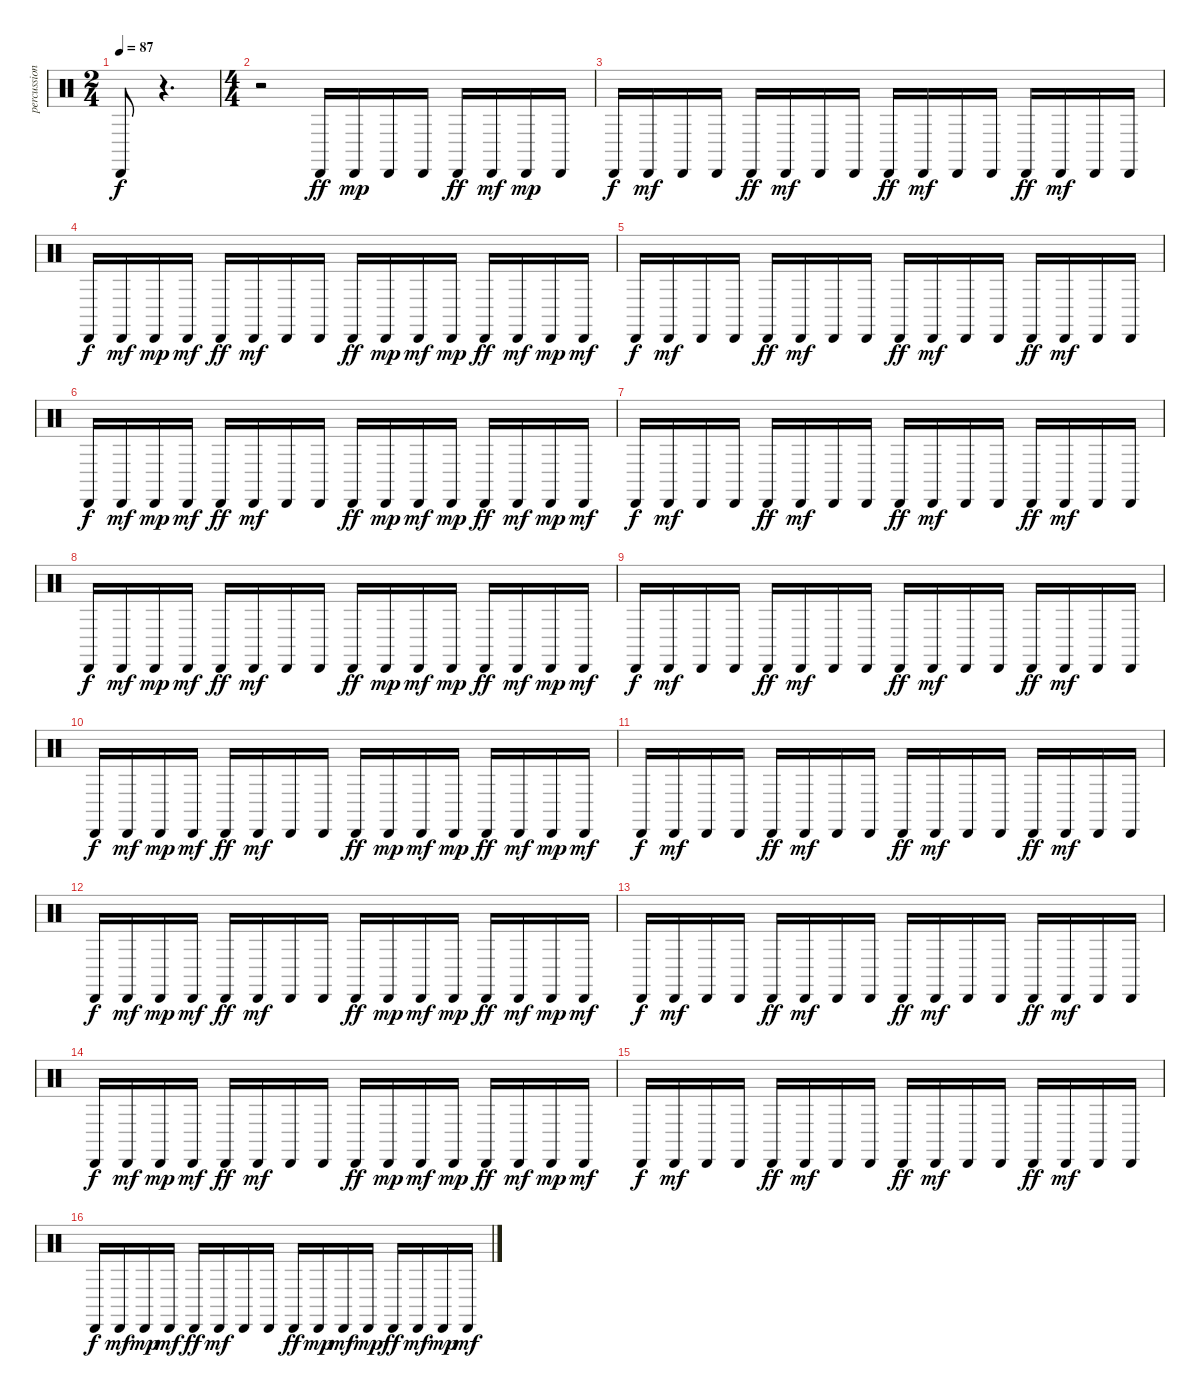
\track ("percussion" "percussion") {instrument percussion}
\staff {score}
\articulation defaults
\ts (2 4)
\tempo 87
\clef neutral
\ks c "Cabasa (hit)".8{dy f}
r.4{d} |
\ts (4 4)
r.2 "Cabasa (hit)".16{dy ff} "Cabasa (hit)".16{dy mp} "Cabasa (hit)".16 "Cabasa (hit)".16 "Cabasa (hit)".16{dy ff} "Cabasa (hit)".16{dy mf} "Cabasa (hit)".16{dy mp} "Cabasa (hit)".16 |
"Cabasa (hit)".16{dy f} "Cabasa (hit)".16{dy mf} "Cabasa (hit)".16 "Cabasa (hit)".16 "Cabasa (hit)".16{dy ff} "Cabasa (hit)".16{dy mf} "Cabasa (hit)".16 "Cabasa (hit)".16 "Cabasa (hit)".16{dy ff} "Cabasa (hit)".16{dy mf} "Cabasa (hit)".16 "Cabasa (hit)".16 "Cabasa (hit)".16{dy ff} "Cabasa (hit)".16{dy mf} "Cabasa (hit)".16 "Cabasa (hit)".16 |
"Cabasa (hit)".16{dy f} "Cabasa (hit)".16{dy mf} "Cabasa (hit)".16{dy mp} "Cabasa (hit)".16{dy mf} "Cabasa (hit)".16{dy ff} "Cabasa (hit)".16{dy mf} "Cabasa (hit)".16 "Cabasa (hit)".16 "Cabasa (hit)".16{dy ff} "Cabasa (hit)".16{dy mp} "Cabasa (hit)".16{dy mf} "Cabasa (hit)".16{dy mp} "Cabasa (hit)".16{dy ff} "Cabasa (hit)".16{dy mf} "Cabasa (hit)".16{dy mp} "Cabasa (hit)".16{dy mf} |
"Cabasa (hit)".16{dy f} "Cabasa (hit)".16{dy mf} "Cabasa (hit)".16 "Cabasa (hit)".16 "Cabasa (hit)".16{dy ff} "Cabasa (hit)".16{dy mf} "Cabasa (hit)".16 "Cabasa (hit)".16 "Cabasa (hit)".16{dy ff} "Cabasa (hit)".16{dy mf} "Cabasa (hit)".16 "Cabasa (hit)".16 "Cabasa (hit)".16{dy ff} "Cabasa (hit)".16{dy mf} "Cabasa (hit)".16 "Cabasa (hit)".16 |
"Cabasa (hit)".16{dy f} "Cabasa (hit)".16{dy mf} "Cabasa (hit)".16{dy mp} "Cabasa (hit)".16{dy mf} "Cabasa (hit)".16{dy ff} "Cabasa (hit)".16{dy mf} "Cabasa (hit)".16 "Cabasa (hit)".16 "Cabasa (hit)".16{dy ff} "Cabasa (hit)".16{dy mp} "Cabasa (hit)".16{dy mf} "Cabasa (hit)".16{dy mp} "Cabasa (hit)".16{dy ff} "Cabasa (hit)".16{dy mf} "Cabasa (hit)".16{dy mp} "Cabasa (hit)".16{dy mf} |
"Cabasa (hit)".16{dy f} "Cabasa (hit)".16{dy mf} "Cabasa (hit)".16 "Cabasa (hit)".16 "Cabasa (hit)".16{dy ff} "Cabasa (hit)".16{dy mf} "Cabasa (hit)".16 "Cabasa (hit)".16 "Cabasa (hit)".16{dy ff} "Cabasa (hit)".16{dy mf} "Cabasa (hit)".16 "Cabasa (hit)".16 "Cabasa (hit)".16{dy ff} "Cabasa (hit)".16{dy mf} "Cabasa (hit)".16 "Cabasa (hit)".16 |
"Cabasa (hit)".16{dy f} "Cabasa (hit)".16{dy mf} "Cabasa (hit)".16{dy mp} "Cabasa (hit)".16{dy mf} "Cabasa (hit)".16{dy ff} "Cabasa (hit)".16{dy mf} "Cabasa (hit)".16 "Cabasa (hit)".16 "Cabasa (hit)".16{dy ff} "Cabasa (hit)".16{dy mp} "Cabasa (hit)".16{dy mf} "Cabasa (hit)".16{dy mp} "Cabasa (hit)".16{dy ff} "Cabasa (hit)".16{dy mf} "Cabasa (hit)".16{dy mp} "Cabasa (hit)".16{dy mf} |
"Cabasa (hit)".16{dy f} "Cabasa (hit)".16{dy mf} "Cabasa (hit)".16 "Cabasa (hit)".16 "Cabasa (hit)".16{dy ff} "Cabasa (hit)".16{dy mf} "Cabasa (hit)".16 "Cabasa (hit)".16 "Cabasa (hit)".16{dy ff} "Cabasa (hit)".16{dy mf} "Cabasa (hit)".16 "Cabasa (hit)".16 "Cabasa (hit)".16{dy ff} "Cabasa (hit)".16{dy mf} "Cabasa (hit)".16 "Cabasa (hit)".16 |
"Cabasa (hit)".16{dy f} "Cabasa (hit)".16{dy mf} "Cabasa (hit)".16{dy mp} "Cabasa (hit)".16{dy mf} "Cabasa (hit)".16{dy ff} "Cabasa (hit)".16{dy mf} "Cabasa (hit)".16 "Cabasa (hit)".16 "Cabasa (hit)".16{dy ff} "Cabasa (hit)".16{dy mp} "Cabasa (hit)".16{dy mf} "Cabasa (hit)".16{dy mp} "Cabasa (hit)".16{dy ff} "Cabasa (hit)".16{dy mf} "Cabasa (hit)".16{dy mp} "Cabasa (hit)".16{dy mf} |
"Cabasa (hit)".16{dy f} "Cabasa (hit)".16{dy mf} "Cabasa (hit)".16 "Cabasa (hit)".16 "Cabasa (hit)".16{dy ff} "Cabasa (hit)".16{dy mf} "Cabasa (hit)".16 "Cabasa (hit)".16 "Cabasa (hit)".16{dy ff} "Cabasa (hit)".16{dy mf} "Cabasa (hit)".16 "Cabasa (hit)".16 "Cabasa (hit)".16{dy ff} "Cabasa (hit)".16{dy mf} "Cabasa (hit)".16 "Cabasa (hit)".16 |
"Cabasa (hit)".16{dy f} "Cabasa (hit)".16{dy mf} "Cabasa (hit)".16{dy mp} "Cabasa (hit)".16{dy mf} "Cabasa (hit)".16{dy ff} "Cabasa (hit)".16{dy mf} "Cabasa (hit)".16 "Cabasa (hit)".16 "Cabasa (hit)".16{dy ff} "Cabasa (hit)".16{dy mp} "Cabasa (hit)".16{dy mf} "Cabasa (hit)".16{dy mp} "Cabasa (hit)".16{dy ff} "Cabasa (hit)".16{dy mf} "Cabasa (hit)".16{dy mp} "Cabasa (hit)".16{dy mf} |
"Cabasa (hit)".16{dy f} "Cabasa (hit)".16{dy mf} "Cabasa (hit)".16 "Cabasa (hit)".16 "Cabasa (hit)".16{dy ff} "Cabasa (hit)".16{dy mf} "Cabasa (hit)".16 "Cabasa (hit)".16 "Cabasa (hit)".16{dy ff} "Cabasa (hit)".16{dy mf} "Cabasa (hit)".16 "Cabasa (hit)".16 "Cabasa (hit)".16{dy ff} "Cabasa (hit)".16{dy mf} "Cabasa (hit)".16 "Cabasa (hit)".16 |
"Cabasa (hit)".16{dy f} "Cabasa (hit)".16{dy mf} "Cabasa (hit)".16{dy mp} "Cabasa (hit)".16{dy mf} "Cabasa (hit)".16{dy ff} "Cabasa (hit)".16{dy mf} "Cabasa (hit)".16 "Cabasa (hit)".16 "Cabasa (hit)".16{dy ff} "Cabasa (hit)".16{dy mp} "Cabasa (hit)".16{dy mf} "Cabasa (hit)".16{dy mp} "Cabasa (hit)".16{dy ff} "Cabasa (hit)".16{dy mf} "Cabasa (hit)".16{dy mp} "Cabasa (hit)".16{dy mf} |
"Cabasa (hit)".16{dy f} "Cabasa (hit)".16{dy mf} "Cabasa (hit)".16 "Cabasa (hit)".16 "Cabasa (hit)".16{dy ff} "Cabasa (hit)".16{dy mf} "Cabasa (hit)".16 "Cabasa (hit)".16 "Cabasa (hit)".16{dy ff} "Cabasa (hit)".16{dy mf} "Cabasa (hit)".16 "Cabasa (hit)".16 "Cabasa (hit)".16{dy ff} "Cabasa (hit)".16{dy mf} "Cabasa (hit)".16 "Cabasa (hit)".16 |
"Cabasa (hit)".16{dy f} "Cabasa (hit)".16{dy mf} "Cabasa (hit)".16{dy mp} "Cabasa (hit)".16{dy mf} "Cabasa (hit)".16{dy ff} "Cabasa (hit)".16{dy mf} "Cabasa (hit)".16 "Cabasa (hit)".16 "Cabasa (hit)".16{dy ff} "Cabasa (hit)".16{dy mp} "Cabasa (hit)".16{dy mf} "Cabasa (hit)".16{dy mp} "Cabasa (hit)".16{dy ff} "Cabasa (hit)".16{dy mf} "Cabasa (hit)".16{dy mp} "Cabasa (hit)".16{dy mf}
